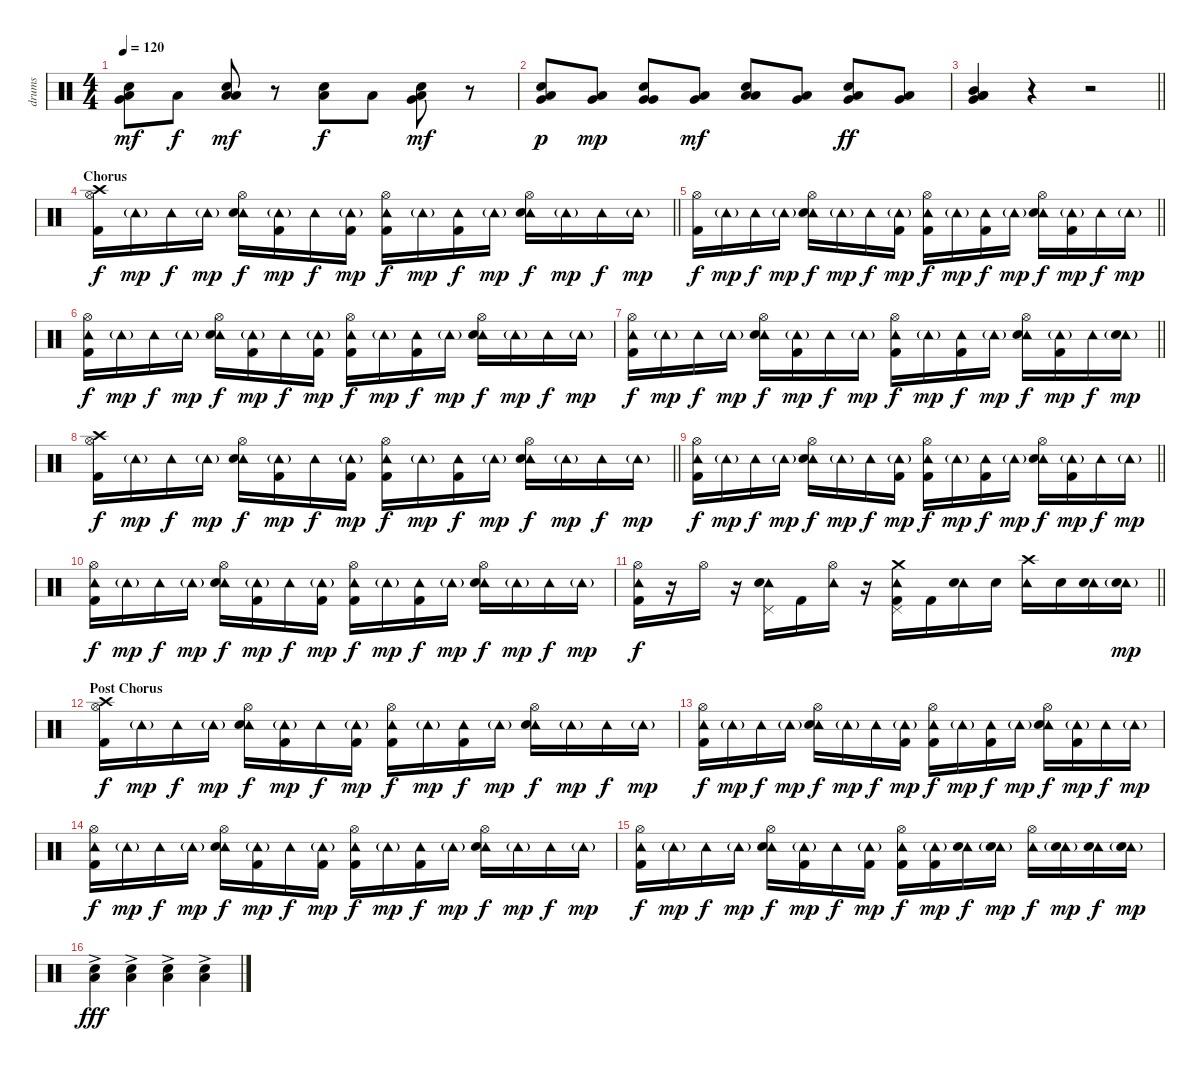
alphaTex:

\track ("drums" "drums") {instrument percussion}
\staff {score}
\articulation defaults
\ts (4 4)
\tempo 120
\clef neutral
\ks c
("Low Floor Tom (hit)" "Very Low Tom (hit)" "Hand Clap (hit)").8{dy mf} "Low Tom (hit)".8{dy f} ("Low Floor Tom (hit)" "Low Tom (hit)" "Hand Clap (hit)").8{dy mf} r.8 ("Low Floor Tom (hit)" "Hand Clap (hit)").8{dy f} "Low Tom (hit)".8 ("Low Floor Tom (hit)" "Very Low Tom (hit)" "Hand Clap (hit)").8{dy mf} r.8 |
("Hand Clap (hit)" "Very Low Tom (hit)" "Low Floor Tom (hit)").8{bd 60 dy p} ("Very Low Tom (hit)" "Low Floor Tom (hit)").8{bu 60 dy mp} ("Hand Clap (hit)" "Very Low Tom (hit)" "Very Low Tom (hit)").8{bd 60} ("Very Low Tom (hit)" "Low Floor Tom (hit)").8{bu 60 dy mf} ("Hand Clap (hit)" "Low Tom (hit)" "Low Floor Tom (hit)").8{bd 60} ("Very Low Tom (hit)" "Low Floor Tom (hit)").8{bu 60} ("Hand Clap (hit)" "Very Low Tom (hit)" "Low Floor Tom (hit)").8{bd 60 dy ff} ("Very Low Tom (hit)" "Low Floor Tom (hit)").8{bu 60} |
\barLineRight lightlight
("Low Floor Tom (hit)" "Low Tom (hit)" "Very Low Tom (hit)" "Mid Tom (hit)").4{bd 60} r.4 r.2 |
\section ("" "Chorus")
\barLineRight lightlight
("Hi-Hat (open)" "Crash high (hit)" "Kick (hit) 2").16{dy f} "Tambourine (hit)"{g}.16{dy mp} "Tambourine (hit)".16{dy f} "Tambourine (hit)"{g}.16{dy mp} ("Tambourine (hit)" "Hi-Hat (open)" "Electric Snare (hit)").16{dy f} ("Tambourine (hit)"{g} "Kick (hit) 2").16{dy mp} "Tambourine (hit)".16{dy f} ("Tambourine (hit)"{g} "Kick (hit) 2").16{dy mp} ("Tambourine (hit)" "Hi-Hat (open)" "Kick (hit) 2").16{dy f} "Tambourine (hit)"{g}.16{dy mp} ("Tambourine (hit)" "Kick (hit) 2").16{dy f} "Tambourine (hit)"{g}.16{dy mp} ("Tambourine (hit)" "Hi-Hat (open)" "Electric Snare (hit)").16{dy f} "Tambourine (hit)"{g}.16{dy mp} "Tambourine (hit)".16{dy f} "Tambourine (hit)"{g}.16{dy mp} |
\barLineRight lightlight
("Hi-Hat (open)" "Kick (hit) 2").16{dy f} "Tambourine (hit)"{g}.16{dy mp} "Tambourine (hit)".16{dy f} "Tambourine (hit)"{g}.16{dy mp} ("Tambourine (hit)" "Hi-Hat (open)" "Electric Snare (hit)").16{dy f} "Tambourine (hit)"{g}.16{dy mp} "Tambourine (hit)".16{dy f} ("Tambourine (hit)"{g} "Kick (hit) 2").16{dy mp} ("Tambourine (hit)" "Hi-Hat (open)" "Kick (hit) 2").16{dy f} "Tambourine (hit)"{g}.16{dy mp} ("Tambourine (hit)" "Kick (hit) 2").16{dy f} "Tambourine (hit)"{g}.16{dy mp} ("Tambourine (hit)" "Hi-Hat (open)" "Electric Snare (hit)").16{dy f} ("Tambourine (hit)"{g} "Kick (hit) 2").16{dy mp} "Tambourine (hit)".16{dy f} "Tambourine (hit)"{g}.16{dy mp} |
("Hi-Hat (open)" "Tambourine (hit)" "Kick (hit) 2").16{dy f} "Tambourine (hit)"{g}.16{dy mp} "Tambourine (hit)".16{dy f} "Tambourine (hit)"{g}.16{dy mp} ("Tambourine (hit)" "Hi-Hat (open)" "Electric Snare (hit)").16{dy f} ("Tambourine (hit)"{g} "Kick (hit) 2").16{dy mp} "Tambourine (hit)".16{dy f} ("Tambourine (hit)"{g} "Kick (hit) 2").16{dy mp} ("Tambourine (hit)" "Hi-Hat (open)" "Kick (hit) 2").16{dy f} "Tambourine (hit)"{g}.16{dy mp} ("Tambourine (hit)" "Kick (hit) 2").16{dy f} "Tambourine (hit)"{g}.16{dy mp} ("Tambourine (hit)" "Hi-Hat (open)" "Electric Snare (hit)").16{dy f} "Tambourine (hit)"{g}.16{dy mp} "Tambourine (hit)".16{dy f} "Tambourine (hit)"{g}.16{dy mp} |
\barLineRight lightlight
("Hi-Hat (open)" "Tambourine (hit)" "Kick (hit) 2").16{dy f} "Tambourine (hit)"{g}.16{dy mp} "Tambourine (hit)".16{dy f} "Tambourine (hit)"{g}.16{dy mp} ("Tambourine (hit)" "Hi-Hat (open)" "Electric Snare (hit)").16{dy f} ("Tambourine (hit)"{g} "Kick (hit) 2").16{dy mp} "Tambourine (hit)".16{dy f} "Tambourine (hit)"{g}.16{dy mp} ("Tambourine (hit)" "Hi-Hat (open)" "Kick (hit) 2").16{dy f} "Tambourine (hit)"{g}.16{dy mp} ("Tambourine (hit)" "Kick (hit) 2").16{dy f} "Tambourine (hit)"{g}.16{dy mp} ("Tambourine (hit)" "Hi-Hat (open)" "Electric Snare (hit)").16{dy f} ("Tambourine (hit)"{g} "Kick (hit) 2").16{dy mp} "Tambourine (hit)".16{dy f} ("Tambourine (hit)"{g} "Electric Snare (hit)").16{dy mp} |
\barLineRight lightlight
("Hi-Hat (open)" "Crash high (hit)" "Kick (hit) 2").16{dy f} "Tambourine (hit)"{g}.16{dy mp} "Tambourine (hit)".16{dy f} "Tambourine (hit)"{g}.16{dy mp} ("Tambourine (hit)" "Hi-Hat (open)" "Electric Snare (hit)").16{dy f} ("Tambourine (hit)"{g} "Kick (hit) 2").16{dy mp} "Tambourine (hit)".16{dy f} ("Tambourine (hit)"{g} "Kick (hit) 2").16{dy mp} ("Tambourine (hit)" "Hi-Hat (open)" "Kick (hit) 2").16{dy f} "Tambourine (hit)"{g}.16{dy mp} ("Tambourine (hit)" "Kick (hit) 2").16{dy f} "Tambourine (hit)"{g}.16{dy mp} ("Tambourine (hit)" "Hi-Hat (open)" "Electric Snare (hit)").16{dy f} "Tambourine (hit)"{g}.16{dy mp} "Tambourine (hit)".16{dy f} "Tambourine (hit)"{g}.16{dy mp} |
\barLineRight lightlight
("Hi-Hat (open)" "Tambourine (hit)" "Kick (hit) 2").16{dy f} "Tambourine (hit)"{g}.16{dy mp} "Tambourine (hit)".16{dy f} "Tambourine (hit)"{g}.16{dy mp} ("Tambourine (hit)" "Hi-Hat (open)" "Electric Snare (hit)").16{dy f} "Tambourine (hit)"{g}.16{dy mp} "Tambourine (hit)".16{dy f} ("Tambourine (hit)"{g} "Kick (hit) 2").16{dy mp} ("Tambourine (hit)" "Hi-Hat (open)" "Kick (hit) 2").16{dy f} "Tambourine (hit)"{g}.16{dy mp} ("Tambourine (hit)" "Kick (hit) 2").16{dy f} "Tambourine (hit)"{g}.16{dy mp} ("Tambourine (hit)" "Hi-Hat (open)" "Electric Snare (hit)").16{dy f} ("Tambourine (hit)"{g} "Kick (hit) 2").16{dy mp} "Tambourine (hit)".16{dy f} "Tambourine (hit)"{g}.16{dy mp} |
("Hi-Hat (open)" "Tambourine (hit)" "Kick (hit) 2").16{dy f} "Tambourine (hit)"{g}.16{dy mp} "Tambourine (hit)".16{dy f} "Tambourine (hit)"{g}.16{dy mp} ("Tambourine (hit)" "Hi-Hat (open)" "Electric Snare (hit)").16{dy f} ("Tambourine (hit)"{g} "Kick (hit) 2").16{dy mp} "Tambourine (hit)".16{dy f} ("Tambourine (hit)"{g} "Kick (hit) 2").16{dy mp} ("Tambourine (hit)" "Hi-Hat (open)" "Kick (hit) 2").16{dy f} "Tambourine (hit)"{g}.16{dy mp} ("Tambourine (hit)" "Kick (hit) 2").16{dy f} "Tambourine (hit)"{g}.16{dy mp} ("Tambourine (hit)" "Hi-Hat (open)" "Electric Snare (hit)").16{dy f} "Tambourine (hit)"{g}.16{dy mp} "Tambourine (hit)".16{dy f} "Tambourine (hit)"{g}.16{dy mp} |
\barLineRight lightlight
("Hi-Hat (open)" "Tambourine (hit)" "Kick (hit) 2").16{dy f} r.16 "Hi-Hat (open)".16 r.16 ("Tambourine (hit)" "Pedal Hi-Hat (hit)" "Electric Snare (hit)").16 "Kick (hit) 2".16 ("Tambourine (hit)" "Hi-Hat (open)").16 r.16 ("Tambourine (hit)" "Pedal Hi-Hat (hit)" "Crash medium (hit)" "Kick (hit) 2").16 "Kick (hit) 2".16 ("Tambourine (hit)" "Electric Snare (hit)").16 "Electric Snare (hit)".16 ("Tambourine (hit)" "Crash high (hit)").16 "Electric Snare (hit)".16 ("Tambourine (hit)" "Electric Snare (hit)").16 ("Tambourine (hit)"{g} "Electric Snare (hit)").16{dy mp} |
\section ("" "Post Chorus")
("Hi-Hat (open)" "Crash high (hit)" "Kick (hit) 2").16{dy f} "Tambourine (hit)"{g}.16{dy mp} "Tambourine (hit)".16{dy f} "Tambourine (hit)"{g}.16{dy mp} ("Tambourine (hit)" "Hi-Hat (open)" "Electric Snare (hit)").16{dy f} ("Tambourine (hit)"{g} "Kick (hit) 2").16{dy mp} "Tambourine (hit)".16{dy f} ("Tambourine (hit)"{g} "Kick (hit) 2").16{dy mp} ("Tambourine (hit)" "Hi-Hat (open)" "Kick (hit) 2").16{dy f} "Tambourine (hit)"{g}.16{dy mp} ("Tambourine (hit)" "Kick (hit) 2").16{dy f} "Tambourine (hit)"{g}.16{dy mp} ("Tambourine (hit)" "Hi-Hat (open)" "Electric Snare (hit)").16{dy f} "Tambourine (hit)"{g}.16{dy mp} "Tambourine (hit)".16{dy f} "Tambourine (hit)"{g}.16{dy mp} |
("Hi-Hat (open)" "Tambourine (hit)" "Kick (hit) 2").16{dy f} "Tambourine (hit)"{g}.16{dy mp} "Tambourine (hit)".16{dy f} "Tambourine (hit)"{g}.16{dy mp} ("Tambourine (hit)" "Hi-Hat (open)" "Electric Snare (hit)").16{dy f} "Tambourine (hit)"{g}.16{dy mp} "Tambourine (hit)".16{dy f} ("Tambourine (hit)"{g} "Kick (hit) 2").16{dy mp} ("Tambourine (hit)" "Hi-Hat (open)" "Kick (hit) 2").16{dy f} "Tambourine (hit)"{g}.16{dy mp} ("Tambourine (hit)" "Kick (hit) 2").16{dy f} "Tambourine (hit)"{g}.16{dy mp} ("Tambourine (hit)" "Hi-Hat (open)" "Electric Snare (hit)").16{dy f} ("Tambourine (hit)"{g} "Kick (hit) 2").16{dy mp} "Tambourine (hit)".16{dy f} "Tambourine (hit)"{g}.16{dy mp} |
("Hi-Hat (open)" "Tambourine (hit)" "Kick (hit) 2").16{dy f} "Tambourine (hit)"{g}.16{dy mp} "Tambourine (hit)".16{dy f} "Tambourine (hit)"{g}.16{dy mp} ("Tambourine (hit)" "Hi-Hat (open)" "Electric Snare (hit)").16{dy f} ("Tambourine (hit)"{g} "Kick (hit) 2").16{dy mp} "Tambourine (hit)".16{dy f} ("Tambourine (hit)"{g} "Kick (hit) 2").16{dy mp} ("Tambourine (hit)" "Hi-Hat (open)" "Kick (hit) 2").16{dy f} "Tambourine (hit)"{g}.16{dy mp} ("Tambourine (hit)" "Kick (hit) 2").16{dy f} "Tambourine (hit)"{g}.16{dy mp} ("Tambourine (hit)" "Hi-Hat (open)" "Electric Snare (hit)").16{dy f} "Tambourine (hit)"{g}.16{dy mp} "Tambourine (hit)".16{dy f} "Tambourine (hit)"{g}.16{dy mp} |
("Hi-Hat (open)" "Tambourine (hit)" "Kick (hit) 2").16{dy f} "Tambourine (hit)"{g}.16{dy mp} "Tambourine (hit)".16{dy f} "Tambourine (hit)"{g}.16{dy mp} ("Tambourine (hit)" "Hi-Hat (open)" "Electric Snare (hit)").16{dy f} ("Tambourine (hit)"{g} "Kick (hit) 2").16{dy mp} "Tambourine (hit)".16{dy f} ("Tambourine (hit)"{g} "Kick (hit) 2").16{dy mp} ("Tambourine (hit)" "Hi-Hat (open)" "Kick (hit) 2").16{dy f} ("Tambourine (hit)"{g} "Kick (hit) 2").16{dy mp} ("Tambourine (hit)" "Electric Snare (hit)").16{dy f} ("Tambourine (hit)"{g} "Electric Snare (hit)").16{dy mp} ("Tambourine (hit)" "Hi-Hat (open)").16{dy f} ("Tambourine (hit)"{g} "Electric Snare (hit)").16{dy mp} ("Tambourine (hit)" "Electric Snare (hit)").16{dy f} ("Tambourine (hit)"{g} "Electric Snare (hit)").16{dy mp} |
("Low Floor Tom (hit)" "Hand Clap (hit)"{ac}).4{dy fff} ("Low Floor Tom (hit)" "Hand Clap (hit)"{ac}).4 ("Low Floor Tom (hit)" "Hand Clap (hit)"{ac}).4 ("Low Floor Tom (hit)" "Hand Clap (hit)"{ac}).4
